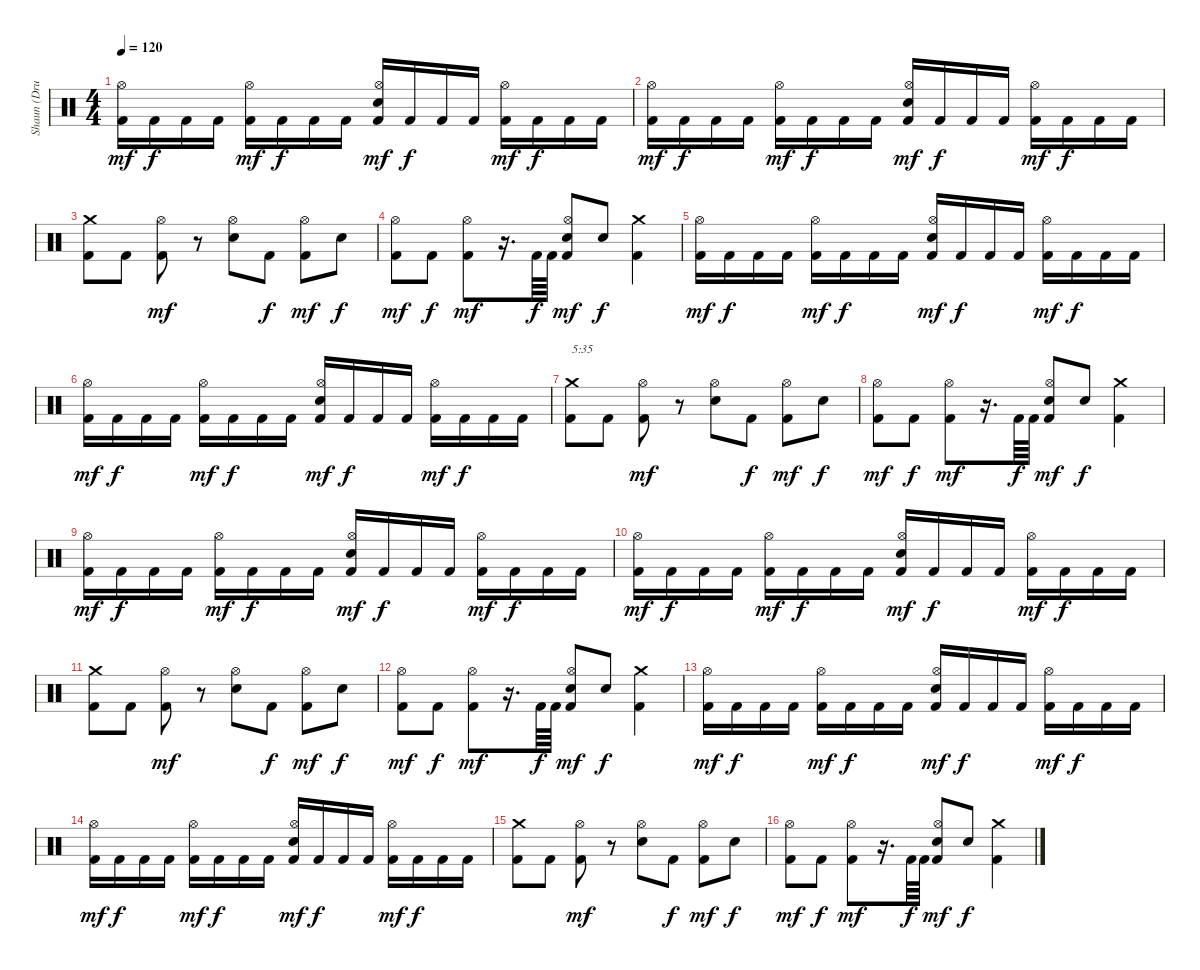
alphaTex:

\track ("Shaun (Drums Of DOOM)" "Shaun (Dru") {instrument percussion}
\staff {score}
\articulation defaults
\ts (4 4)
\tempo 120
\clef neutral
\ks c
("Kick (hit) 2" "Hi-Hat (open)").16{dy mf} "Kick (hit) 2".16{dy f} "Kick (hit) 2".16 "Kick (hit) 2".16 ("Kick (hit) 2" "Hi-Hat (open)").16{dy mf} "Kick (hit) 2".16{dy f} "Kick (hit) 2".16 "Kick (hit) 2".16 ("Kick (hit) 2" "Electric Snare (hit)" "Hi-Hat (open)").16{dy mf} "Kick (hit) 2".16{dy f} "Kick (hit) 2".16 "Kick (hit) 2".16 ("Kick (hit) 2" "Hi-Hat (open)").16{dy mf} "Kick (hit) 2".16{dy f} "Kick (hit) 2".16 "Kick (hit) 2".16 |
("Kick (hit) 2" "Hi-Hat (open)").16{dy mf} "Kick (hit) 2".16{dy f} "Kick (hit) 2".16 "Kick (hit) 2".16 ("Kick (hit) 2" "Hi-Hat (open)").16{dy mf} "Kick (hit) 2".16{dy f} "Kick (hit) 2".16 "Kick (hit) 2".16 ("Kick (hit) 2" "Electric Snare (hit)" "Hi-Hat (open)").16{dy mf} "Kick (hit) 2".16{dy f} "Kick (hit) 2".16 "Kick (hit) 2".16 ("Kick (hit) 2" "Hi-Hat (open)").16{dy mf} "Kick (hit) 2".16{dy f} "Kick (hit) 2".16 "Kick (hit) 2".16 |
("Kick (hit) 2" "Crash medium (hit)").8 "Kick (hit) 2".8 ("Kick (hit) 2" "Hi-Hat (open)").8{dy mf} r.8 ("Electric Snare (hit)" "Hi-Hat (open)").8 "Kick (hit) 2".8{dy f} ("Kick (hit) 2" "Hi-Hat (open)").8{dy mf} "Electric Snare (hit)".8{dy f} |
("Kick (hit) 2" "Hi-Hat (open)").8{dy mf} "Kick (hit) 2".8{dy f} ("Kick (hit) 2" "Hi-Hat (open)").8{dy mf} r.16{d} "Kick (hit) 2".64{dy f} "Kick (hit) 2".64 ("Kick (hit) 2" "Electric Snare (hit)" "Hi-Hat (open)").8{dy mf} "Electric Snare (hit)".8{dy f} ("Kick (hit) 2" "Crash medium (hit)").4 |
("Kick (hit) 2" "Hi-Hat (open)").16{dy mf} "Kick (hit) 2".16{dy f} "Kick (hit) 2".16 "Kick (hit) 2".16 ("Kick (hit) 2" "Hi-Hat (open)").16{dy mf} "Kick (hit) 2".16{dy f} "Kick (hit) 2".16 "Kick (hit) 2".16 ("Kick (hit) 2" "Electric Snare (hit)" "Hi-Hat (open)").16{dy mf} "Kick (hit) 2".16{dy f} "Kick (hit) 2".16 "Kick (hit) 2".16 ("Kick (hit) 2" "Hi-Hat (open)").16{dy mf} "Kick (hit) 2".16{dy f} "Kick (hit) 2".16 "Kick (hit) 2".16 |
("Kick (hit) 2" "Hi-Hat (open)").16{dy mf} "Kick (hit) 2".16{dy f} "Kick (hit) 2".16 "Kick (hit) 2".16 ("Kick (hit) 2" "Hi-Hat (open)").16{dy mf} "Kick (hit) 2".16{dy f} "Kick (hit) 2".16 "Kick (hit) 2".16 ("Kick (hit) 2" "Electric Snare (hit)" "Hi-Hat (open)").16{dy mf} "Kick (hit) 2".16{dy f} "Kick (hit) 2".16 "Kick (hit) 2".16 ("Kick (hit) 2" "Hi-Hat (open)").16{dy mf} "Kick (hit) 2".16{dy f} "Kick (hit) 2".16 "Kick (hit) 2".16 |
("Kick (hit) 2" "Crash medium (hit)").8{txt "5:35"} "Kick (hit) 2".8 ("Kick (hit) 2" "Hi-Hat (open)").8{dy mf} r.8 ("Electric Snare (hit)" "Hi-Hat (open)").8 "Kick (hit) 2".8{dy f} ("Kick (hit) 2" "Hi-Hat (open)").8{dy mf} "Electric Snare (hit)".8{dy f} |
("Kick (hit) 2" "Hi-Hat (open)").8{dy mf} "Kick (hit) 2".8{dy f} ("Kick (hit) 2" "Hi-Hat (open)").8{dy mf} r.16{d} "Kick (hit) 2".64{dy f} "Kick (hit) 2".64 ("Kick (hit) 2" "Electric Snare (hit)" "Hi-Hat (open)").8{dy mf} "Electric Snare (hit)".8{dy f} ("Kick (hit) 2" "Crash medium (hit)").4 |
("Kick (hit) 2" "Hi-Hat (open)").16{dy mf} "Kick (hit) 2".16{dy f} "Kick (hit) 2".16 "Kick (hit) 2".16 ("Kick (hit) 2" "Hi-Hat (open)").16{dy mf} "Kick (hit) 2".16{dy f} "Kick (hit) 2".16 "Kick (hit) 2".16 ("Kick (hit) 2" "Electric Snare (hit)" "Hi-Hat (open)").16{dy mf} "Kick (hit) 2".16{dy f} "Kick (hit) 2".16 "Kick (hit) 2".16 ("Kick (hit) 2" "Hi-Hat (open)").16{dy mf} "Kick (hit) 2".16{dy f} "Kick (hit) 2".16 "Kick (hit) 2".16 |
("Kick (hit) 2" "Hi-Hat (open)").16{dy mf} "Kick (hit) 2".16{dy f} "Kick (hit) 2".16 "Kick (hit) 2".16 ("Kick (hit) 2" "Hi-Hat (open)").16{dy mf} "Kick (hit) 2".16{dy f} "Kick (hit) 2".16 "Kick (hit) 2".16 ("Kick (hit) 2" "Electric Snare (hit)" "Hi-Hat (open)").16{dy mf} "Kick (hit) 2".16{dy f} "Kick (hit) 2".16 "Kick (hit) 2".16 ("Kick (hit) 2" "Hi-Hat (open)").16{dy mf} "Kick (hit) 2".16{dy f} "Kick (hit) 2".16 "Kick (hit) 2".16 |
("Kick (hit) 2" "Crash medium (hit)").8 "Kick (hit) 2".8 ("Kick (hit) 2" "Hi-Hat (open)").8{dy mf} r.8 ("Electric Snare (hit)" "Hi-Hat (open)").8 "Kick (hit) 2".8{dy f} ("Kick (hit) 2" "Hi-Hat (open)").8{dy mf} "Electric Snare (hit)".8{dy f} |
("Kick (hit) 2" "Hi-Hat (open)").8{dy mf} "Kick (hit) 2".8{dy f} ("Kick (hit) 2" "Hi-Hat (open)").8{dy mf} r.16{d} "Kick (hit) 2".64{dy f} "Kick (hit) 2".64 ("Kick (hit) 2" "Electric Snare (hit)" "Hi-Hat (open)").8{dy mf} "Electric Snare (hit)".8{dy f} ("Kick (hit) 2" "Crash medium (hit)").4 |
("Kick (hit) 2" "Hi-Hat (open)").16{dy mf} "Kick (hit) 2".16{dy f} "Kick (hit) 2".16 "Kick (hit) 2".16 ("Kick (hit) 2" "Hi-Hat (open)").16{dy mf} "Kick (hit) 2".16{dy f} "Kick (hit) 2".16 "Kick (hit) 2".16 ("Kick (hit) 2" "Electric Snare (hit)" "Hi-Hat (open)").16{dy mf} "Kick (hit) 2".16{dy f} "Kick (hit) 2".16 "Kick (hit) 2".16 ("Kick (hit) 2" "Hi-Hat (open)").16{dy mf} "Kick (hit) 2".16{dy f} "Kick (hit) 2".16 "Kick (hit) 2".16 |
("Kick (hit) 2" "Hi-Hat (open)").16{dy mf} "Kick (hit) 2".16{dy f} "Kick (hit) 2".16 "Kick (hit) 2".16 ("Kick (hit) 2" "Hi-Hat (open)").16{dy mf} "Kick (hit) 2".16{dy f} "Kick (hit) 2".16 "Kick (hit) 2".16 ("Kick (hit) 2" "Electric Snare (hit)" "Hi-Hat (open)").16{dy mf} "Kick (hit) 2".16{dy f} "Kick (hit) 2".16 "Kick (hit) 2".16 ("Kick (hit) 2" "Hi-Hat (open)").16{dy mf} "Kick (hit) 2".16{dy f} "Kick (hit) 2".16 "Kick (hit) 2".16 |
("Kick (hit) 2" "Crash medium (hit)").8 "Kick (hit) 2".8 ("Kick (hit) 2" "Hi-Hat (open)").8{dy mf} r.8 ("Electric Snare (hit)" "Hi-Hat (open)").8 "Kick (hit) 2".8{dy f} ("Kick (hit) 2" "Hi-Hat (open)").8{dy mf} "Electric Snare (hit)".8{dy f} |
("Kick (hit) 2" "Hi-Hat (open)").8{dy mf} "Kick (hit) 2".8{dy f} ("Kick (hit) 2" "Hi-Hat (open)").8{dy mf} r.16{d} "Kick (hit) 2".64{dy f} "Kick (hit) 2".64 ("Kick (hit) 2" "Electric Snare (hit)" "Hi-Hat (open)").8{dy mf} "Electric Snare (hit)".8{dy f} ("Kick (hit) 2" "Crash medium (hit)").4
